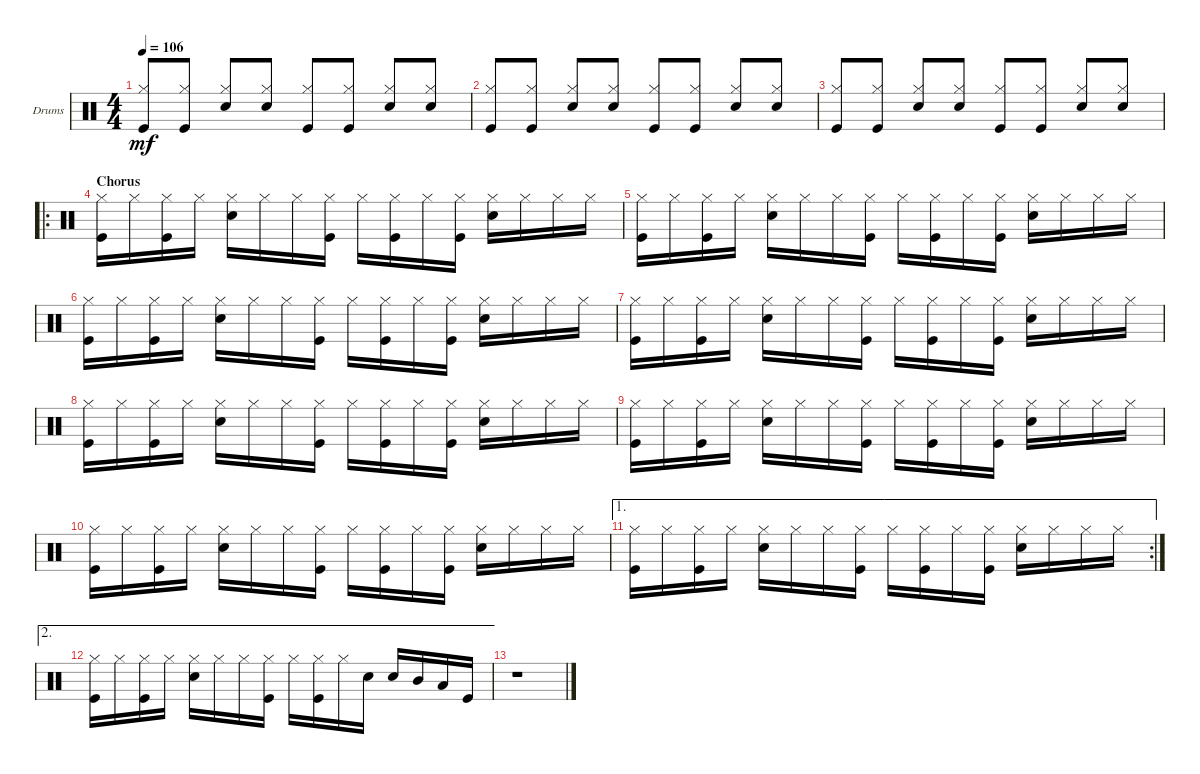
\defaultSystemsLayout 4
\bracketExtendMode groupsimilarinstruments
\firstSystemTrackNameOrientation horizontal
\otherSystemsTrackNameOrientation horizontal
\track ("Drums" "Drums") {instrument percussion}
\staff {score}
\articulation defaults
\ts (4 4)
\tempo 106
\clef neutral
\ks c
("Hi-Hat (closed)" "Kick (hit)").8{dy mf beam invert} ("Hi-Hat (closed)" "Kick (hit)").8 ("Hi-Hat (closed)" "Snare (hit) 2").8{beam invert} ("Hi-Hat (closed)" "Snare (hit) 2").8 ("Hi-Hat (closed)" "Kick (hit)").8{beam invert} ("Hi-Hat (closed)" "Kick (hit)").8 ("Hi-Hat (closed)" "Snare (hit) 2").8{beam invert} ("Hi-Hat (closed)" "Snare (hit) 2").8 |
("Hi-Hat (closed)" "Kick (hit)").8{beam invert} ("Hi-Hat (closed)" "Kick (hit)").8 ("Hi-Hat (closed)" "Snare (hit) 2").8{beam invert} ("Hi-Hat (closed)" "Snare (hit) 2").8 ("Hi-Hat (closed)" "Kick (hit)").8{beam invert} ("Hi-Hat (closed)" "Kick (hit)").8 ("Hi-Hat (closed)" "Snare (hit) 2").8{beam invert} ("Hi-Hat (closed)" "Snare (hit) 2").8 |
("Hi-Hat (closed)" "Kick (hit)").8{beam invert} ("Hi-Hat (closed)" "Kick (hit)").8 ("Hi-Hat (closed)" "Snare (hit) 2").8{beam invert} ("Hi-Hat (closed)" "Snare (hit) 2").8 ("Hi-Hat (closed)" "Kick (hit)").8{beam invert} ("Hi-Hat (closed)" "Kick (hit)").8 ("Hi-Hat (closed)" "Snare (hit) 2").8{beam invert} ("Hi-Hat (closed)" "Snare (hit) 2").8 |
\ro
\section ("" "Chorus")
("Kick (hit)" "Hi-Hat (closed)").16 "Hi-Hat (closed)".16 ("Kick (hit)" "Hi-Hat (closed)").16 "Hi-Hat (closed)".16 ("Snare (hit) 2" "Hi-Hat (closed)").16 "Hi-Hat (closed)".16 "Hi-Hat (closed)".16 ("Kick (hit)" "Hi-Hat (closed)").16 "Hi-Hat (closed)".16 ("Kick (hit)" "Hi-Hat (closed)").16 "Hi-Hat (closed)".16 ("Kick (hit)" "Hi-Hat (closed)").16 ("Snare (hit) 2" "Hi-Hat (closed)").16 "Hi-Hat (closed)".16 "Hi-Hat (closed)".16 "Hi-Hat (closed)".16 |
("Kick (hit)" "Hi-Hat (closed)").16 "Hi-Hat (closed)".16 ("Kick (hit)" "Hi-Hat (closed)").16 "Hi-Hat (closed)".16 ("Snare (hit) 2" "Hi-Hat (closed)").16 "Hi-Hat (closed)".16 "Hi-Hat (closed)".16 ("Kick (hit)" "Hi-Hat (closed)").16 "Hi-Hat (closed)".16 ("Kick (hit)" "Hi-Hat (closed)").16 "Hi-Hat (closed)".16 ("Kick (hit)" "Hi-Hat (closed)").16 ("Snare (hit) 2" "Hi-Hat (closed)").16 "Hi-Hat (closed)".16 "Hi-Hat (closed)".16 "Hi-Hat (closed)".16 |
("Kick (hit)" "Hi-Hat (closed)").16 "Hi-Hat (closed)".16 ("Kick (hit)" "Hi-Hat (closed)").16 "Hi-Hat (closed)".16 ("Snare (hit) 2" "Hi-Hat (closed)").16 "Hi-Hat (closed)".16 "Hi-Hat (closed)".16 ("Kick (hit)" "Hi-Hat (closed)").16 "Hi-Hat (closed)".16 ("Kick (hit)" "Hi-Hat (closed)").16 "Hi-Hat (closed)".16 ("Kick (hit)" "Hi-Hat (closed)").16 ("Snare (hit) 2" "Hi-Hat (closed)").16 "Hi-Hat (closed)".16 "Hi-Hat (closed)".16 "Hi-Hat (closed)".16 |
("Kick (hit)" "Hi-Hat (closed)").16 "Hi-Hat (closed)".16 ("Kick (hit)" "Hi-Hat (closed)").16 "Hi-Hat (closed)".16 ("Snare (hit) 2" "Hi-Hat (closed)").16 "Hi-Hat (closed)".16 "Hi-Hat (closed)".16 ("Kick (hit)" "Hi-Hat (closed)").16 "Hi-Hat (closed)".16 ("Kick (hit)" "Hi-Hat (closed)").16 "Hi-Hat (closed)".16 ("Kick (hit)" "Hi-Hat (closed)").16 ("Snare (hit) 2" "Hi-Hat (closed)").16 "Hi-Hat (closed)".16 "Hi-Hat (closed)".16 "Hi-Hat (closed)".16 |
("Kick (hit)" "Hi-Hat (closed)").16 "Hi-Hat (closed)".16 ("Kick (hit)" "Hi-Hat (closed)").16 "Hi-Hat (closed)".16 ("Snare (hit) 2" "Hi-Hat (closed)").16 "Hi-Hat (closed)".16 "Hi-Hat (closed)".16 ("Kick (hit)" "Hi-Hat (closed)").16 "Hi-Hat (closed)".16 ("Kick (hit)" "Hi-Hat (closed)").16 "Hi-Hat (closed)".16 ("Kick (hit)" "Hi-Hat (closed)").16 ("Snare (hit) 2" "Hi-Hat (closed)").16 "Hi-Hat (closed)".16 "Hi-Hat (closed)".16 "Hi-Hat (closed)".16 |
("Kick (hit)" "Hi-Hat (closed)").16 "Hi-Hat (closed)".16 ("Kick (hit)" "Hi-Hat (closed)").16 "Hi-Hat (closed)".16 ("Snare (hit) 2" "Hi-Hat (closed)").16 "Hi-Hat (closed)".16 "Hi-Hat (closed)".16 ("Kick (hit)" "Hi-Hat (closed)").16 "Hi-Hat (closed)".16 ("Kick (hit)" "Hi-Hat (closed)").16 "Hi-Hat (closed)".16 ("Kick (hit)" "Hi-Hat (closed)").16 ("Snare (hit) 2" "Hi-Hat (closed)").16 "Hi-Hat (closed)".16 "Hi-Hat (closed)".16 "Hi-Hat (closed)".16 |
("Kick (hit)" "Hi-Hat (closed)").16 "Hi-Hat (closed)".16 ("Kick (hit)" "Hi-Hat (closed)").16 "Hi-Hat (closed)".16 ("Snare (hit) 2" "Hi-Hat (closed)").16 "Hi-Hat (closed)".16 "Hi-Hat (closed)".16 ("Kick (hit)" "Hi-Hat (closed)").16 "Hi-Hat (closed)".16 ("Kick (hit)" "Hi-Hat (closed)").16 "Hi-Hat (closed)".16 ("Kick (hit)" "Hi-Hat (closed)").16 ("Snare (hit) 2" "Hi-Hat (closed)").16 "Hi-Hat (closed)".16 "Hi-Hat (closed)".16 "Hi-Hat (closed)".16 |
\ae 1
\rc 2
("Kick (hit)" "Hi-Hat (closed)").16 "Hi-Hat (closed)".16 ("Kick (hit)" "Hi-Hat (closed)").16 "Hi-Hat (closed)".16 ("Snare (hit) 2" "Hi-Hat (closed)").16 "Hi-Hat (closed)".16 "Hi-Hat (closed)".16 ("Kick (hit)" "Hi-Hat (closed)").16 "Hi-Hat (closed)".16 ("Kick (hit)" "Hi-Hat (closed)").16 "Hi-Hat (closed)".16 ("Kick (hit)" "Hi-Hat (closed)").16 ("Snare (hit) 2" "Hi-Hat (closed)").16 "Hi-Hat (closed)".16 "Hi-Hat (closed)".16 "Hi-Hat (closed)".16 |
\ae 2
("Kick (hit)" "Hi-Hat (closed)").16 "Hi-Hat (closed)".16 ("Kick (hit)" "Hi-Hat (closed)").16 "Hi-Hat (closed)".16 ("Snare (hit) 2" "Hi-Hat (closed)").16 "Hi-Hat (closed)".16 "Hi-Hat (closed)".16 ("Kick (hit)" "Hi-Hat (closed)").16 "Hi-Hat (closed)".16 ("Kick (hit)" "Hi-Hat (closed)").16 "Hi-Hat (closed)".16 "Snare (hit) 2".16 "Snare (hit) 2".16 "Mid Tom (hit)".16 "Low Tom (hit)".16 "Kick (hit)".16 |
r.1
